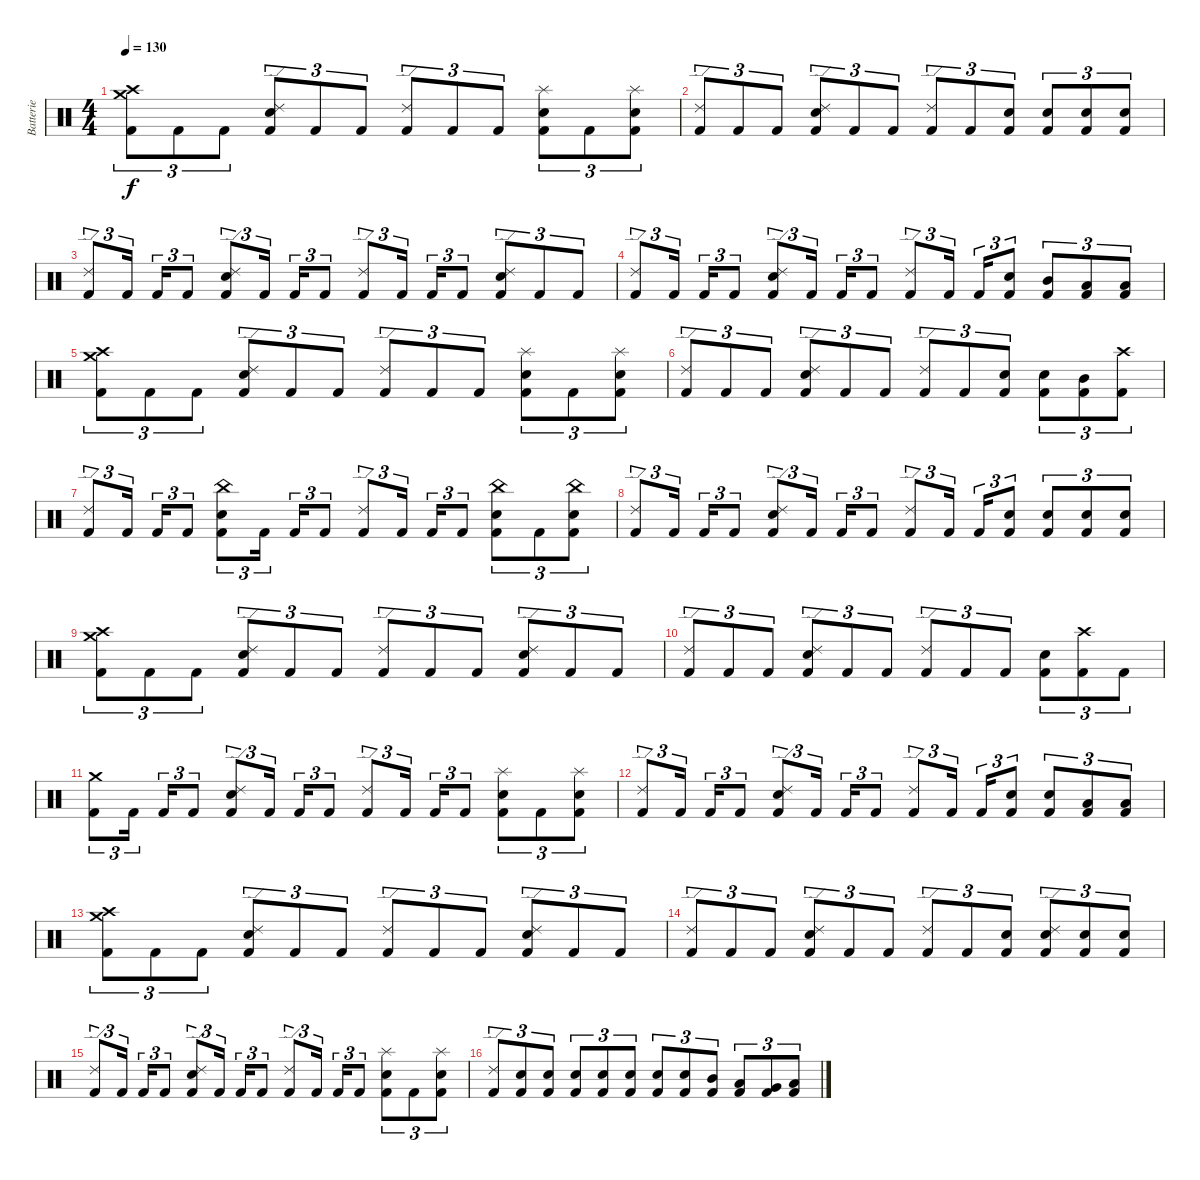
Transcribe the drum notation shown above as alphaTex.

\track ("Batterie" "Batterie") {instrument percussion}
\staff {score}
\articulation defaults
\ts (4 4)
\tempo 130
\clef neutral
\ks c
("Crash medium (hit)" "Crash high (hit)" "Kick (hit) 2").8{tu (3 2) dy f} "Kick (hit) 2".8{tu (3 2)} "Kick (hit) 2".8{tu (3 2)} ("Ride (edge) 2" "Electric Snare (hit)" "Kick (hit) 2").8{tu (3 2)} "Kick (hit) 2".8{tu (3 2)} "Kick (hit) 2".8{tu (3 2)} ("Ride (edge) 2" "Kick (hit) 2").8{tu (3 2)} "Kick (hit) 2".8{tu (3 2)} "Kick (hit) 2".8{tu (3 2)} ("Splash (hit)" "Electric Snare (hit)" "Kick (hit) 2").8{tu (3 2)} "Kick (hit) 2".8{tu (3 2)} ("Splash (hit)" "Electric Snare (hit)" "Kick (hit) 2").8{tu (3 2)} |
("Ride (edge) 2" "Kick (hit) 2").8{tu (3 2)} "Kick (hit) 2".8{tu (3 2)} "Kick (hit) 2".8{tu (3 2)} ("Ride (edge) 2" "Electric Snare (hit)" "Kick (hit) 2").8{tu (3 2)} "Kick (hit) 2".8{tu (3 2)} "Kick (hit) 2".8{tu (3 2)} ("Ride (edge) 2" "Kick (hit) 2").8{tu (3 2)} "Kick (hit) 2".8{tu (3 2)} ("Electric Snare (hit)" "Kick (hit) 2").8{tu (3 2)} ("Electric Snare (hit)" "Kick (hit) 2").8{tu (3 2)} ("Electric Snare (hit)" "Kick (hit) 2").8{tu (3 2)} ("Electric Snare (hit)" "Kick (hit) 2").8{tu (3 2)} |
("Ride (edge) 2" "Kick (hit) 2").8{tu (3 2)} "Kick (hit) 2".16{tu (3 2)} "Kick (hit) 2".16{tu (3 2)} "Kick (hit) 2".8{tu (3 2)} ("Ride (edge) 2" "Electric Snare (hit)" "Kick (hit) 2").8{tu (3 2)} "Kick (hit) 2".16{tu (3 2)} "Kick (hit) 2".16{tu (3 2)} "Kick (hit) 2".8{tu (3 2)} ("Ride (edge) 2" "Kick (hit) 2").8{tu (3 2)} "Kick (hit) 2".16{tu (3 2)} "Kick (hit) 2".16{tu (3 2)} "Kick (hit) 2".8{tu (3 2)} ("Ride (edge) 2" "Electric Snare (hit)" "Kick (hit) 2").8{tu (3 2)} "Kick (hit) 2".8{tu (3 2)} "Kick (hit) 2".8{tu (3 2)} |
("Ride (edge) 2" "Kick (hit) 2").8{tu (3 2)} "Kick (hit) 2".16{tu (3 2)} "Kick (hit) 2".16{tu (3 2)} "Kick (hit) 2".8{tu (3 2)} ("Ride (edge) 2" "Electric Snare (hit)" "Kick (hit) 2").8{tu (3 2)} "Kick (hit) 2".16{tu (3 2)} "Kick (hit) 2".16{tu (3 2)} "Kick (hit) 2".8{tu (3 2)} ("Ride (edge) 2" "Kick (hit) 2").8{tu (3 2)} "Kick (hit) 2".16{tu (3 2)} "Kick (hit) 2".16{tu (3 2)} ("Electric Snare (hit)" "Kick (hit) 2").8{tu (3 2)} ("Mid Tom (hit)" "Kick (hit) 2").8{tu (3 2)} ("Low Tom (hit)" "Kick (hit) 2").8{tu (3 2)} ("Low Floor Tom (hit)" "Kick (hit) 2").8{tu (3 2)} |
("Crash medium (hit)" "Crash high (hit)" "Kick (hit) 2").8{tu (3 2)} "Kick (hit) 2".8{tu (3 2)} "Kick (hit) 2".8{tu (3 2)} ("Ride (edge) 2" "Electric Snare (hit)" "Kick (hit) 2").8{tu (3 2)} "Kick (hit) 2".8{tu (3 2)} "Kick (hit) 2".8{tu (3 2)} ("Ride (edge) 2" "Kick (hit) 2").8{tu (3 2)} "Kick (hit) 2".8{tu (3 2)} "Kick (hit) 2".8{tu (3 2)} ("Splash (hit)" "Electric Snare (hit)" "Kick (hit) 2").8{tu (3 2)} "Kick (hit) 2".8{tu (3 2)} ("Splash (hit)" "Electric Snare (hit)" "Kick (hit) 2").8{tu (3 2)} |
("Ride (edge) 2" "Kick (hit) 2").8{tu (3 2)} "Kick (hit) 2".8{tu (3 2)} "Kick (hit) 2".8{tu (3 2)} ("Ride (edge) 2" "Electric Snare (hit)" "Kick (hit) 2").8{tu (3 2)} "Kick (hit) 2".8{tu (3 2)} "Kick (hit) 2".8{tu (3 2)} ("Ride (edge) 2" "Kick (hit) 2").8{tu (3 2)} "Kick (hit) 2".8{tu (3 2)} ("Electric Snare (hit)" "Kick (hit) 2").8{tu (3 2)} ("Electric Snare (hit)" "Kick (hit) 2").8{tu (3 2)} ("Mid Tom (hit)" "Kick (hit) 2").8{tu (3 2)} ("Crash high (hit)" "Kick (hit) 2").8{tu (3 2)} |
("Ride (edge) 2" "Kick (hit) 2").8{tu (3 2)} "Kick (hit) 2".16{tu (3 2)} "Kick (hit) 2".16{tu (3 2)} "Kick (hit) 2".8{tu (3 2)} ("China (hit)" "Electric Snare (hit)" "Kick (hit) 2").8{tu (3 2)} "Kick (hit) 2".16{tu (3 2)} "Kick (hit) 2".16{tu (3 2)} "Kick (hit) 2".8{tu (3 2)} ("Ride (edge) 2" "Kick (hit) 2").8{tu (3 2)} "Kick (hit) 2".16{tu (3 2)} "Kick (hit) 2".16{tu (3 2)} "Kick (hit) 2".8{tu (3 2)} ("China (hit)" "Electric Snare (hit)" "Kick (hit) 2").8{tu (3 2)} "Kick (hit) 2".8{tu (3 2)} ("China (hit)" "Electric Snare (hit)" "Kick (hit) 2").8{tu (3 2)} |
("Ride (edge) 2" "Kick (hit) 2").8{tu (3 2)} "Kick (hit) 2".16{tu (3 2)} "Kick (hit) 2".16{tu (3 2)} "Kick (hit) 2".8{tu (3 2)} ("Ride (edge) 2" "Electric Snare (hit)" "Kick (hit) 2").8{tu (3 2)} "Kick (hit) 2".16{tu (3 2)} "Kick (hit) 2".16{tu (3 2)} "Kick (hit) 2".8{tu (3 2)} ("Ride (edge) 2" "Kick (hit) 2").8{tu (3 2)} "Kick (hit) 2".16{tu (3 2)} "Kick (hit) 2".16{tu (3 2)} ("Electric Snare (hit)" "Kick (hit) 2").8{tu (3 2)} ("Electric Snare (hit)" "Kick (hit) 2").8{tu (3 2)} ("Electric Snare (hit)" "Kick (hit) 2").8{tu (3 2)} ("Electric Snare (hit)" "Kick (hit) 2").8{tu (3 2)} |
("Crash medium (hit)" "Crash high (hit)" "Kick (hit) 2").8{tu (3 2)} "Kick (hit) 2".8{tu (3 2)} "Kick (hit) 2".8{tu (3 2)} ("Ride (edge) 2" "Electric Snare (hit)" "Kick (hit) 2").8{tu (3 2)} "Kick (hit) 2".8{tu (3 2)} "Kick (hit) 2".8{tu (3 2)} ("Ride (edge) 2" "Kick (hit) 2").8{tu (3 2)} "Kick (hit) 2".8{tu (3 2)} "Kick (hit) 2".8{tu (3 2)} ("Ride (edge) 2" "Electric Snare (hit)" "Kick (hit) 2").8{tu (3 2)} "Kick (hit) 2".8{tu (3 2)} "Kick (hit) 2".8{tu (3 2)} |
("Ride (edge) 2" "Kick (hit) 2").8{tu (3 2)} "Kick (hit) 2".8{tu (3 2)} "Kick (hit) 2".8{tu (3 2)} ("Ride (edge) 2" "Electric Snare (hit)" "Kick (hit) 2").8{tu (3 2)} "Kick (hit) 2".8{tu (3 2)} "Kick (hit) 2".8{tu (3 2)} ("Ride (edge) 2" "Kick (hit) 2").8{tu (3 2)} "Kick (hit) 2".8{tu (3 2)} "Kick (hit) 2".8{tu (3 2)} ("Electric Snare (hit)" "Kick (hit) 2").8{tu (3 2)} ("Crash high (hit)" "Kick (hit) 2").8{tu (3 2)} "Kick (hit) 2".8{tu (3 2)} |
("Crash medium (hit)" "Kick (hit) 2").8{tu (3 2)} "Kick (hit) 2".16{tu (3 2)} "Kick (hit) 2".16{tu (3 2)} "Kick (hit) 2".8{tu (3 2)} ("Ride (edge) 2" "Electric Snare (hit)" "Kick (hit) 2").8{tu (3 2)} "Kick (hit) 2".16{tu (3 2)} "Kick (hit) 2".16{tu (3 2)} "Kick (hit) 2".8{tu (3 2)} ("Ride (edge) 2" "Kick (hit) 2").8{tu (3 2)} "Kick (hit) 2".16{tu (3 2)} "Kick (hit) 2".16{tu (3 2)} "Kick (hit) 2".8{tu (3 2)} ("Splash (hit)" "Electric Snare (hit)" "Kick (hit) 2").8{tu (3 2)} "Kick (hit) 2".8{tu (3 2)} ("Splash (hit)" "Electric Snare (hit)" "Kick (hit) 2").8{tu (3 2)} |
("Ride (edge) 2" "Kick (hit) 2").8{tu (3 2)} "Kick (hit) 2".16{tu (3 2)} "Kick (hit) 2".16{tu (3 2)} "Kick (hit) 2".8{tu (3 2)} ("Ride (edge) 2" "Electric Snare (hit)" "Kick (hit) 2").8{tu (3 2)} "Kick (hit) 2".16{tu (3 2)} "Kick (hit) 2".16{tu (3 2)} "Kick (hit) 2".8{tu (3 2)} ("Ride (edge) 2" "Kick (hit) 2").8{tu (3 2)} "Kick (hit) 2".16{tu (3 2)} "Kick (hit) 2".16{tu (3 2)} ("Electric Snare (hit)" "Kick (hit) 2").8{tu (3 2)} ("Electric Snare (hit)" "Kick (hit) 2").8{tu (3 2)} ("Low Tom (hit)" "Kick (hit) 2").8{tu (3 2)} ("Low Floor Tom (hit)" "Kick (hit) 2").8{tu (3 2)} |
("Crash medium (hit)" "Crash high (hit)" "Kick (hit) 2").8{tu (3 2)} "Kick (hit) 2".8{tu (3 2)} "Kick (hit) 2".8{tu (3 2)} ("Ride (edge) 2" "Electric Snare (hit)" "Kick (hit) 2").8{tu (3 2)} "Kick (hit) 2".8{tu (3 2)} "Kick (hit) 2".8{tu (3 2)} ("Ride (edge) 2" "Kick (hit) 2").8{tu (3 2)} "Kick (hit) 2".8{tu (3 2)} "Kick (hit) 2".8{tu (3 2)} ("Ride (edge) 2" "Electric Snare (hit)" "Kick (hit) 2").8{tu (3 2)} "Kick (hit) 2".8{tu (3 2)} "Kick (hit) 2".8{tu (3 2)} |
("Ride (edge) 2" "Kick (hit) 2").8{tu (3 2)} "Kick (hit) 2".8{tu (3 2)} "Kick (hit) 2".8{tu (3 2)} ("Ride (edge) 2" "Electric Snare (hit)" "Kick (hit) 2").8{tu (3 2)} "Kick (hit) 2".8{tu (3 2)} "Kick (hit) 2".8{tu (3 2)} ("Ride (edge) 2" "Kick (hit) 2").8{tu (3 2)} "Kick (hit) 2".8{tu (3 2)} ("Electric Snare (hit)" "Kick (hit) 2").8{tu (3 2)} ("Ride (edge) 2" "Electric Snare (hit)" "Kick (hit) 2").8{tu (3 2)} ("Electric Snare (hit)" "Kick (hit) 2").8{tu (3 2)} ("Electric Snare (hit)" "Kick (hit) 2").8{tu (3 2)} |
("Ride (edge) 2" "Kick (hit) 2").8{tu (3 2)} "Kick (hit) 2".16{tu (3 2)} "Kick (hit) 2".16{tu (3 2)} "Kick (hit) 2".8{tu (3 2)} ("Ride (edge) 2" "Electric Snare (hit)" "Kick (hit) 2").8{tu (3 2)} "Kick (hit) 2".16{tu (3 2)} "Kick (hit) 2".16{tu (3 2)} "Kick (hit) 2".8{tu (3 2)} ("Ride (edge) 2" "Kick (hit) 2").8{tu (3 2)} "Kick (hit) 2".16{tu (3 2)} "Kick (hit) 2".16{tu (3 2)} "Kick (hit) 2".8{tu (3 2)} ("Splash (hit)" "Electric Snare (hit)" "Kick (hit) 2").8{tu (3 2)} "Kick (hit) 2".8{tu (3 2)} ("Splash (hit)" "Electric Snare (hit)" "Kick (hit) 2").8{tu (3 2)} |
("Ride (edge) 2" "Kick (hit) 2").8{tu (3 2)} ("Electric Snare (hit)" "Kick (hit) 2").8{tu (3 2)} ("Electric Snare (hit)" "Kick (hit) 2").8{tu (3 2)} ("Electric Snare (hit)" "Kick (hit) 2").8{tu (3 2)} ("Electric Snare (hit)" "Kick (hit) 2").8{tu (3 2)} ("Electric Snare (hit)" "Kick (hit) 2").8{tu (3 2)} ("Electric Snare (hit)" "Kick (hit) 2").8{tu (3 2)} ("Electric Snare (hit)" "Kick (hit) 2").8{tu (3 2)} ("Mid Tom (hit)" "Kick (hit) 2").8{tu (3 2)} ("Low Tom (hit)" "Kick (hit) 2").8{tu (3 2)} ("Very Low Tom (hit)" "Kick (hit) 2").8{tu (3 2)} ("Low Floor Tom (hit)" "Kick (hit) 2").8{tu (3 2)}
